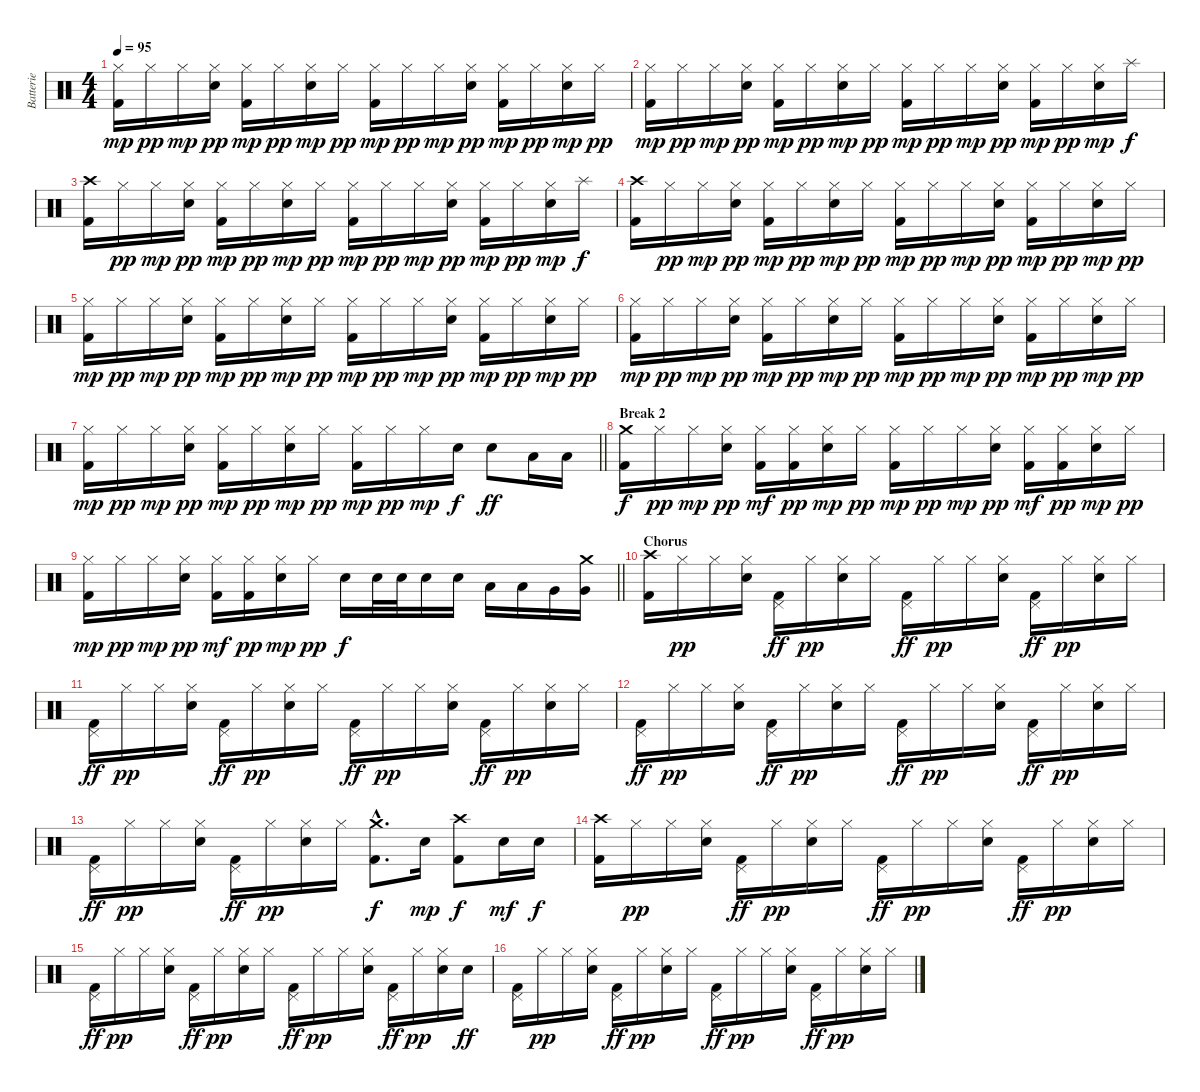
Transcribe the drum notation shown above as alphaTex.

\track ("Batterie" "Batterie") {instrument percussion}
\staff {score}
\articulation defaults
\ts (4 4)
\tempo 95
\clef neutral
\ks c
("Hi-Hat (closed)" "Kick (hit) 2").16{dy mp} "Hi-Hat (closed)".16{dy pp} "Hi-Hat (closed)".16{dy mp} ("Hi-Hat (closed)" "Electric Snare (hit)").16{dy pp} ("Hi-Hat (closed)" "Kick (hit) 2").16{dy mp} "Hi-Hat (closed)".16{dy pp} ("Hi-Hat (closed)" "Electric Snare (hit)").16{dy mp} "Hi-Hat (closed)".16{dy pp} ("Hi-Hat (closed)" "Kick (hit) 2").16{dy mp} "Hi-Hat (closed)".16{dy pp} "Hi-Hat (closed)".16{dy mp} ("Hi-Hat (closed)" "Electric Snare (hit)").16{dy pp} ("Hi-Hat (closed)" "Kick (hit) 2").16{dy mp} "Hi-Hat (closed)".16{dy pp} ("Hi-Hat (closed)" "Electric Snare (hit)").16{dy mp} "Hi-Hat (closed)".16{dy pp} |
("Hi-Hat (closed)" "Kick (hit) 2").16{dy mp} "Hi-Hat (closed)".16{dy pp} "Hi-Hat (closed)".16{dy mp} ("Hi-Hat (closed)" "Electric Snare (hit)").16{dy pp} ("Hi-Hat (closed)" "Kick (hit) 2").16{dy mp} "Hi-Hat (closed)".16{dy pp} ("Hi-Hat (closed)" "Electric Snare (hit)").16{dy mp} "Hi-Hat (closed)".16{dy pp} ("Hi-Hat (closed)" "Kick (hit) 2").16{dy mp} "Hi-Hat (closed)".16{dy pp} "Hi-Hat (closed)".16{dy mp} ("Hi-Hat (closed)" "Electric Snare (hit)").16{dy pp} ("Hi-Hat (closed)" "Kick (hit) 2").16{dy mp} "Hi-Hat (closed)".16{dy pp} ("Hi-Hat (closed)" "Electric Snare (hit)").16{dy mp} "Splash (hit)".16{dy f} |
("Crash high (hit)" "Kick (hit) 2").16 "Hi-Hat (closed)".16{dy pp} "Hi-Hat (closed)".16{dy mp} ("Hi-Hat (closed)" "Electric Snare (hit)").16{dy pp} ("Hi-Hat (closed)" "Kick (hit) 2").16{dy mp} "Hi-Hat (closed)".16{dy pp} ("Hi-Hat (closed)" "Electric Snare (hit)").16{dy mp} "Hi-Hat (closed)".16{dy pp} ("Hi-Hat (closed)" "Kick (hit) 2").16{dy mp} "Hi-Hat (closed)".16{dy pp} "Hi-Hat (closed)".16{dy mp} ("Hi-Hat (closed)" "Electric Snare (hit)").16{dy pp} ("Hi-Hat (closed)" "Kick (hit) 2").16{dy mp} "Hi-Hat (closed)".16{dy pp} ("Hi-Hat (closed)" "Electric Snare (hit)").16{dy mp} "Splash (hit)".16{dy f} |
("Crash high (hit)" "Kick (hit) 2").16 "Hi-Hat (closed)".16{dy pp} "Hi-Hat (closed)".16{dy mp} ("Hi-Hat (closed)" "Electric Snare (hit)").16{dy pp} ("Hi-Hat (closed)" "Kick (hit) 2").16{dy mp} "Hi-Hat (closed)".16{dy pp} ("Hi-Hat (closed)" "Electric Snare (hit)").16{dy mp} "Hi-Hat (closed)".16{dy pp} ("Hi-Hat (closed)" "Kick (hit) 2").16{dy mp} "Hi-Hat (closed)".16{dy pp} "Hi-Hat (closed)".16{dy mp} ("Hi-Hat (closed)" "Electric Snare (hit)").16{dy pp} ("Hi-Hat (closed)" "Kick (hit) 2").16{dy mp} "Hi-Hat (closed)".16{dy pp} ("Hi-Hat (closed)" "Electric Snare (hit)").16{dy mp} "Hi-Hat (closed)".16{dy pp} |
("Hi-Hat (closed)" "Kick (hit) 2").16{dy mp} "Hi-Hat (closed)".16{dy pp} "Hi-Hat (closed)".16{dy mp} ("Hi-Hat (closed)" "Electric Snare (hit)").16{dy pp} ("Hi-Hat (closed)" "Kick (hit) 2").16{dy mp} "Hi-Hat (closed)".16{dy pp} ("Hi-Hat (closed)" "Electric Snare (hit)").16{dy mp} "Hi-Hat (closed)".16{dy pp} ("Hi-Hat (closed)" "Kick (hit) 2").16{dy mp} "Hi-Hat (closed)".16{dy pp} "Hi-Hat (closed)".16{dy mp} ("Hi-Hat (closed)" "Electric Snare (hit)").16{dy pp} ("Hi-Hat (closed)" "Kick (hit) 2").16{dy mp} "Hi-Hat (closed)".16{dy pp} ("Hi-Hat (closed)" "Electric Snare (hit)").16{dy mp} "Hi-Hat (closed)".16{dy pp} |
("Hi-Hat (closed)" "Kick (hit) 2").16{dy mp} "Hi-Hat (closed)".16{dy pp} "Hi-Hat (closed)".16{dy mp} ("Hi-Hat (closed)" "Electric Snare (hit)").16{dy pp} ("Hi-Hat (closed)" "Kick (hit) 2").16{dy mp} "Hi-Hat (closed)".16{dy pp} ("Hi-Hat (closed)" "Electric Snare (hit)").16{dy mp} "Hi-Hat (closed)".16{dy pp} ("Hi-Hat (closed)" "Kick (hit) 2").16{dy mp} "Hi-Hat (closed)".16{dy pp} "Hi-Hat (closed)".16{dy mp} ("Hi-Hat (closed)" "Electric Snare (hit)").16{dy pp} ("Hi-Hat (closed)" "Kick (hit) 2").16{dy mp} "Hi-Hat (closed)".16{dy pp} ("Hi-Hat (closed)" "Electric Snare (hit)").16{dy mp} "Hi-Hat (closed)".16{dy pp} |
\barLineRight lightlight
("Hi-Hat (closed)" "Kick (hit) 2").16{dy mp} "Hi-Hat (closed)".16{dy pp} "Hi-Hat (closed)".16{dy mp} ("Hi-Hat (closed)" "Electric Snare (hit)").16{dy pp} ("Hi-Hat (closed)" "Kick (hit) 2").16{dy mp} "Hi-Hat (closed)".16{dy pp} ("Hi-Hat (closed)" "Electric Snare (hit)").16{dy mp} "Hi-Hat (closed)".16{dy pp} ("Hi-Hat (closed)" "Kick (hit) 2").16{dy mp} "Hi-Hat (closed)".16{dy pp} "Hi-Hat (closed)".16{dy mp} "Electric Snare (hit)".16{dy f} "Electric Snare (hit)".8{dy ff} "Low Tom (hit)".16 "Low Tom (hit)".16 |
\section ("" "Break 2")
("Crash medium (hit)" "Kick (hit) 2").16{dy f} "Hi-Hat (closed)".16{dy pp} "Hi-Hat (closed)".16{dy mp} ("Hi-Hat (closed)" "Electric Snare (hit)").16{dy pp} ("Hi-Hat (closed)" "Kick (hit) 2").16{dy mf} ("Hi-Hat (closed)" "Kick (hit) 2").16{dy pp} ("Hi-Hat (closed)" "Electric Snare (hit)").16{dy mp} "Hi-Hat (closed)".16{dy pp} ("Hi-Hat (closed)" "Kick (hit) 2").16{dy mp} "Hi-Hat (closed)".16{dy pp} "Hi-Hat (closed)".16{dy mp} ("Hi-Hat (closed)" "Electric Snare (hit)").16{dy pp} ("Hi-Hat (closed)" "Kick (hit) 2").16{dy mf} ("Hi-Hat (closed)" "Kick (hit) 2").16{dy pp} ("Hi-Hat (closed)" "Electric Snare (hit)").16{dy mp} "Hi-Hat (closed)".16{dy pp} |
\barLineRight lightlight
("Hi-Hat (closed)" "Kick (hit) 2").16{dy mp} "Hi-Hat (closed)".16{dy pp} "Hi-Hat (closed)".16{dy mp} ("Hi-Hat (closed)" "Electric Snare (hit)").16{dy pp} ("Hi-Hat (closed)" "Kick (hit) 2").16{dy mf} ("Hi-Hat (closed)" "Kick (hit) 2").16{dy pp} ("Hi-Hat (closed)" "Electric Snare (hit)").16{dy mp} "Hi-Hat (closed)".16{dy pp} "Electric Snare (hit)".16{dy f} "Electric Snare (hit)".32 "Electric Snare (hit)".32 "Electric Snare (hit)".16 "Electric Snare (hit)".16 "Low Tom (hit)".16 "Low Tom (hit)".16 "Very Low Tom (hit)".16 ("Crash medium (hit)" "Very Low Tom (hit)").16 |
\section ("" "Chorus")
("Crash high (hit)" "Kick (hit) 2").16 "Hi-Hat (closed)".16{dy pp} "Hi-Hat (closed)".16 ("Hi-Hat (closed)" "Electric Snare (hit)").16 ("Pedal Hi-Hat (hit)" "Kick (hit) 2").16{dy ff} "Hi-Hat (closed)".16{dy pp} ("Hi-Hat (closed)" "Electric Snare (hit)").16 "Hi-Hat (closed)".16 ("Pedal Hi-Hat (hit)" "Kick (hit) 2").16{dy ff} "Hi-Hat (closed)".16{dy pp} "Hi-Hat (closed)".16 ("Hi-Hat (closed)" "Electric Snare (hit)").16 ("Pedal Hi-Hat (hit)" "Kick (hit) 2").16{dy ff} "Hi-Hat (closed)".16{dy pp} ("Hi-Hat (closed)" "Electric Snare (hit)").16 "Hi-Hat (closed)".16 |
("Pedal Hi-Hat (hit)" "Kick (hit) 2").16{dy ff} "Hi-Hat (closed)".16{dy pp} "Hi-Hat (closed)".16 ("Hi-Hat (closed)" "Electric Snare (hit)").16 ("Pedal Hi-Hat (hit)" "Kick (hit) 2").16{dy ff} "Hi-Hat (closed)".16{dy pp} ("Hi-Hat (closed)" "Electric Snare (hit)").16 "Hi-Hat (closed)".16 ("Pedal Hi-Hat (hit)" "Kick (hit) 2").16{dy ff} "Hi-Hat (closed)".16{dy pp} "Hi-Hat (closed)".16 ("Hi-Hat (closed)" "Electric Snare (hit)").16 ("Pedal Hi-Hat (hit)" "Kick (hit) 2").16{dy ff} "Hi-Hat (closed)".16{dy pp} ("Hi-Hat (closed)" "Electric Snare (hit)").16 "Hi-Hat (closed)".16 |
("Pedal Hi-Hat (hit)" "Kick (hit) 2").16{dy ff} "Hi-Hat (closed)".16{dy pp} "Hi-Hat (closed)".16 ("Hi-Hat (closed)" "Electric Snare (hit)").16 ("Pedal Hi-Hat (hit)" "Kick (hit) 2").16{dy ff} "Hi-Hat (closed)".16{dy pp} ("Hi-Hat (closed)" "Electric Snare (hit)").16 "Hi-Hat (closed)".16 ("Pedal Hi-Hat (hit)" "Kick (hit) 2").16{dy ff} "Hi-Hat (closed)".16{dy pp} "Hi-Hat (closed)".16 ("Hi-Hat (closed)" "Electric Snare (hit)").16 ("Pedal Hi-Hat (hit)" "Kick (hit) 2").16{dy ff} "Hi-Hat (closed)".16{dy pp} ("Hi-Hat (closed)" "Electric Snare (hit)").16 "Hi-Hat (closed)".16 |
("Pedal Hi-Hat (hit)" "Kick (hit) 2").16{dy ff} "Hi-Hat (closed)".16{dy pp} "Hi-Hat (closed)".16 ("Hi-Hat (closed)" "Electric Snare (hit)").16 ("Pedal Hi-Hat (hit)" "Kick (hit) 2").16{dy ff} "Hi-Hat (closed)".16{dy pp} ("Hi-Hat (closed)" "Electric Snare (hit)").16 "Hi-Hat (closed)".16 ("Crash medium (hit)"{hac} "Kick (hit) 2"{hac}).8{d dy f} "Electric Snare (hit)".16{dy mp} ("Crash high (hit)" "Kick (hit) 2").8{dy f} "Electric Snare (hit)".16{dy mf} "Electric Snare (hit)".16{dy f} |
("Crash high (hit)" "Kick (hit) 2").16 "Hi-Hat (closed)".16{dy pp} "Hi-Hat (closed)".16 ("Hi-Hat (closed)" "Electric Snare (hit)").16 ("Pedal Hi-Hat (hit)" "Kick (hit) 2").16{dy ff} "Hi-Hat (closed)".16{dy pp} ("Hi-Hat (closed)" "Electric Snare (hit)").16 "Hi-Hat (closed)".16 ("Pedal Hi-Hat (hit)" "Kick (hit) 2").16{dy ff} "Hi-Hat (closed)".16{dy pp} "Hi-Hat (closed)".16 ("Hi-Hat (closed)" "Electric Snare (hit)").16 ("Pedal Hi-Hat (hit)" "Kick (hit) 2").16{dy ff} "Hi-Hat (closed)".16{dy pp} ("Hi-Hat (closed)" "Electric Snare (hit)").16 "Hi-Hat (closed)".16 |
("Pedal Hi-Hat (hit)" "Kick (hit) 2").16{dy ff} "Hi-Hat (closed)".16{dy pp} "Hi-Hat (closed)".16 ("Hi-Hat (closed)" "Electric Snare (hit)").16 ("Pedal Hi-Hat (hit)" "Kick (hit) 2").16{dy ff} "Hi-Hat (closed)".16{dy pp} ("Hi-Hat (closed)" "Electric Snare (hit)").16 "Hi-Hat (closed)".16 ("Pedal Hi-Hat (hit)" "Kick (hit) 2").16{dy ff} "Hi-Hat (closed)".16{dy pp} "Hi-Hat (closed)".16 ("Hi-Hat (closed)" "Electric Snare (hit)").16 ("Pedal Hi-Hat (hit)" "Kick (hit) 2").16{dy ff} "Hi-Hat (closed)".16{dy pp} ("Hi-Hat (closed)" "Electric Snare (hit)").16 "Electric Snare (hit)".16{dy ff} |
("Pedal Hi-Hat (hit)" "Kick (hit) 2").16 "Hi-Hat (closed)".16{dy pp} "Hi-Hat (closed)".16 ("Hi-Hat (closed)" "Electric Snare (hit)").16 ("Pedal Hi-Hat (hit)" "Kick (hit) 2").16{dy ff} "Hi-Hat (closed)".16{dy pp} ("Hi-Hat (closed)" "Electric Snare (hit)").16 "Hi-Hat (closed)".16 ("Pedal Hi-Hat (hit)" "Kick (hit) 2").16{dy ff} "Hi-Hat (closed)".16{dy pp} "Hi-Hat (closed)".16 ("Hi-Hat (closed)" "Electric Snare (hit)").16 ("Pedal Hi-Hat (hit)" "Kick (hit) 2").16{dy ff} "Hi-Hat (closed)".16{dy pp} ("Hi-Hat (closed)" "Electric Snare (hit)").16 "Hi-Hat (closed)".16
